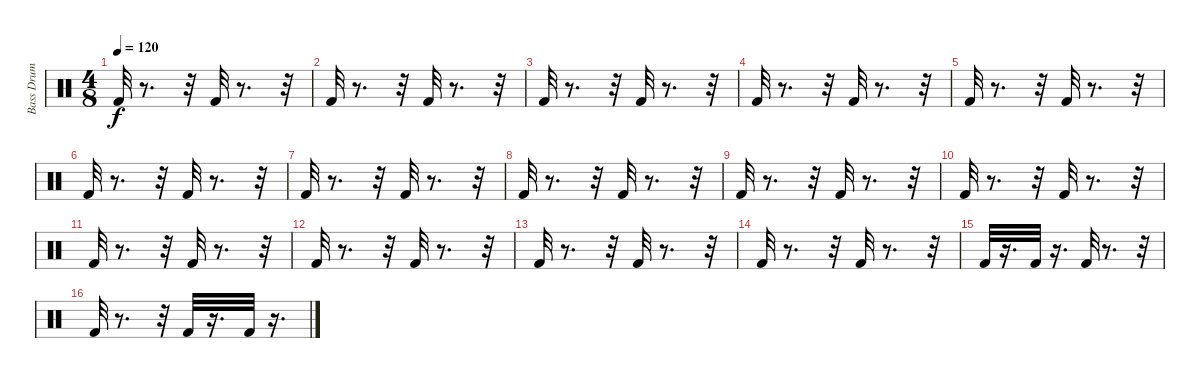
\track ("Bass Drum" "Bass Drum") {instrument percussion}
\staff {score}
\articulation defaults
\ts (4 8)
\tempo 120
\clef neutral
\ks c "Kick (hit) 2".32{dy f}
r.8{d} r.32 "Kick (hit) 2".32 r.8{d} r.32 |
"Kick (hit) 2".32 r.8{d} r.32 "Kick (hit) 2".32 r.8{d} r.32 |
"Kick (hit) 2".32 r.8{d} r.32 "Kick (hit) 2".32 r.8{d} r.32 |
"Kick (hit) 2".32 r.8{d} r.32 "Kick (hit) 2".32 r.8{d} r.32 |
"Kick (hit) 2".32 r.8{d} r.32 "Kick (hit) 2".32 r.8{d} r.32 |
"Kick (hit) 2".32 r.8{d} r.32 "Kick (hit) 2".32 r.8{d} r.32 |
"Kick (hit) 2".32 r.8{d} r.32 "Kick (hit) 2".32 r.8{d} r.32 |
"Kick (hit) 2".32 r.8{d} r.32 "Kick (hit) 2".32 r.8{d} r.32 |
"Kick (hit) 2".32 r.8{d} r.32 "Kick (hit) 2".32 r.8{d} r.32 |
"Kick (hit) 2".32 r.8{d} r.32 "Kick (hit) 2".32 r.8{d} r.32 |
"Kick (hit) 2".32 r.8{d} r.32 "Kick (hit) 2".32 r.8{d} r.32 |
"Kick (hit) 2".32 r.8{d} r.32 "Kick (hit) 2".32 r.8{d} r.32 |
"Kick (hit) 2".32 r.8{d} r.32 "Kick (hit) 2".32 r.8{d} r.32 |
"Kick (hit) 2".32 r.8{d} r.32 "Kick (hit) 2".32 r.8{d} r.32 |
"Kick (hit) 2".32 r.16{d} "Kick (hit) 2".32 r.16{d} "Kick (hit) 2".32 r.8{d} r.32 |
"Kick (hit) 2".32 r.8{d} r.32 "Kick (hit) 2".32 r.16{d} "Kick (hit) 2".32 r.16{d}
